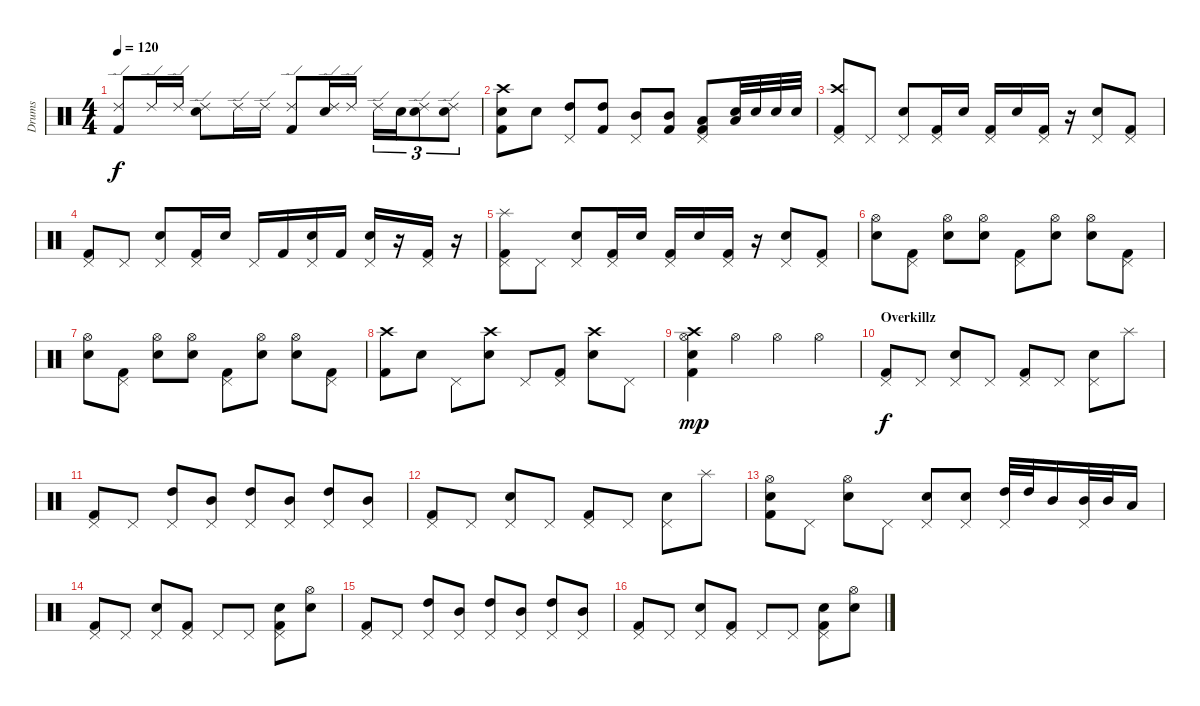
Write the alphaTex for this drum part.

\track ("Drums" "Drums") {instrument percussion}
\staff {score}
\articulation defaults
\ts (4 4)
\tempo 120
\clef neutral
\ks c
("Ride (edge) 2" "Kick (hit) 2").8{dy f} "Ride (edge) 2".16 "Ride (edge) 2".16 ("Ride (edge) 2" "Electric Snare (hit)").8 "Ride (edge) 2".16 "Ride (edge) 2".16 ("Ride (edge) 2" "Kick (hit) 2").8 ("Ride (edge) 2" "Electric Snare (hit)").16 "Ride (edge) 2".16 "Ride (edge) 2".16{tu (3 2)} "Electric Snare (hit)".16{tu (3 2)} ("Ride (edge) 2" "Electric Snare (hit)").8{tu (3 2)} ("Ride (edge) 2" "Electric Snare (hit)").8{tu (3 2)} |
("Crash high (hit)" "Electric Snare (hit)" "Kick (hit) 2").8 "Electric Snare (hit)".8 ("Pedal Hi-Hat (hit)" "High Tom (hit)").8 ("High Tom (hit)" "Kick (hit) 2").8 ("Pedal Hi-Hat (hit)" "Mid Tom (hit)").8 ("Mid Tom (hit)" "Kick (hit) 2").8 ("Pedal Hi-Hat (hit)" "Low Tom (hit)" "Kick (hit) 2").8 ("Electric Snare (hit)" "Low Tom (hit)").32 "Electric Snare (hit)".32 "Electric Snare (hit)".32 "Electric Snare (hit)".32 |
("Crash high (hit)" "Pedal Hi-Hat (hit)" "Kick (hit) 2").8 "Pedal Hi-Hat (hit)".8 ("Pedal Hi-Hat (hit)" "Electric Snare (hit)").8 ("Pedal Hi-Hat (hit)" "Kick (hit) 2").16 "Electric Snare (hit)".16 ("Pedal Hi-Hat (hit)" "Kick (hit) 2").16 "Electric Snare (hit)".16 ("Pedal Hi-Hat (hit)" "Kick (hit) 2").16 r.16 ("Pedal Hi-Hat (hit)" "Electric Snare (hit)").8 ("Pedal Hi-Hat (hit)" "Kick (hit) 2").8 |
("Pedal Hi-Hat (hit)" "Kick (hit) 2").8 "Pedal Hi-Hat (hit)".8 ("Pedal Hi-Hat (hit)" "Electric Snare (hit)").8 ("Pedal Hi-Hat (hit)" "Kick (hit) 2").16 "Electric Snare (hit)".16 "Pedal Hi-Hat (hit)".16 "Kick (hit) 2".16 ("Pedal Hi-Hat (hit)" "Electric Snare (hit)").16 "Kick (hit) 2".16 ("Pedal Hi-Hat (hit)" "Electric Snare (hit)").16 r.16 ("Pedal Hi-Hat (hit)" "Kick (hit) 2").16 r.16 |
("Splash (hit)" "Pedal Hi-Hat (hit)" "Kick (hit) 2").8 "Pedal Hi-Hat (hit)".8 ("Pedal Hi-Hat (hit)" "Electric Snare (hit)").8 ("Pedal Hi-Hat (hit)" "Kick (hit) 2").16 "Electric Snare (hit)".16 ("Pedal Hi-Hat (hit)" "Kick (hit) 2").16 "Electric Snare (hit)".16 ("Pedal Hi-Hat (hit)" "Kick (hit) 2").16 r.16 ("Pedal Hi-Hat (hit)" "Electric Snare (hit)").8 ("Pedal Hi-Hat (hit)" "Kick (hit) 2").8 |
("Hi-Hat (open)" "Electric Snare (hit)").8 ("Pedal Hi-Hat (hit)" "Kick (hit) 2").8 ("Hi-Hat (open)" "Electric Snare (hit)").8 ("Hi-Hat (open)" "Electric Snare (hit)").8 ("Pedal Hi-Hat (hit)" "Kick (hit) 2").8 ("Hi-Hat (open)" "Electric Snare (hit)").8 ("Hi-Hat (open)" "Electric Snare (hit)").8 ("Pedal Hi-Hat (hit)" "Kick (hit) 2").8 |
("Hi-Hat (open)" "Electric Snare (hit)").8 ("Pedal Hi-Hat (hit)" "Kick (hit) 2").8 ("Hi-Hat (open)" "Electric Snare (hit)").8 ("Hi-Hat (open)" "Electric Snare (hit)").8 ("Pedal Hi-Hat (hit)" "Kick (hit) 2").8 ("Hi-Hat (open)" "Electric Snare (hit)").8 ("Hi-Hat (open)" "Electric Snare (hit)").8 ("Pedal Hi-Hat (hit)" "Kick (hit) 2").8 |
("Crash high (hit)" "Kick (hit) 2").8 "Electric Snare (hit)".8 "Pedal Hi-Hat (hit)".8 ("Crash high (hit)" "Electric Snare (hit)").8 "Pedal Hi-Hat (hit)".8 ("Pedal Hi-Hat (hit)" "Kick (hit) 2").8 ("Crash high (hit)" "Electric Snare (hit)").8 "Pedal Hi-Hat (hit)".8 |
("Crash high (hit)" "Hi-Hat (open)" "Electric Snare (hit)" "Kick (hit) 2").4{dy mp} "Hi-Hat (open)".4 "Hi-Hat (open)".4 "Hi-Hat (open)".4 |
\section ("" "Overkillz")
("Pedal Hi-Hat (hit)" "Kick (hit) 2").8{dy f} "Pedal Hi-Hat (hit)".8 ("Pedal Hi-Hat (hit)" "Electric Snare (hit)").8 "Pedal Hi-Hat (hit)".8 ("Pedal Hi-Hat (hit)" "Kick (hit) 2").8 "Pedal Hi-Hat (hit)".8 ("Pedal Hi-Hat (hit)" "Electric Snare (hit)").8 "Splash (hit)".8 |
("Pedal Hi-Hat (hit)" "Kick (hit) 2").8 "Pedal Hi-Hat (hit)".8 ("Pedal Hi-Hat (hit)" "High Tom (hit)").8 ("Pedal Hi-Hat (hit)" "Mid Tom (hit)").8 ("Pedal Hi-Hat (hit)" "High Tom (hit)").8 ("Pedal Hi-Hat (hit)" "Mid Tom (hit)").8 ("Pedal Hi-Hat (hit)" "High Tom (hit)").8 ("Pedal Hi-Hat (hit)" "Mid Tom (hit)").8 |
("Pedal Hi-Hat (hit)" "Kick (hit) 2").8 "Pedal Hi-Hat (hit)".8 ("Pedal Hi-Hat (hit)" "Electric Snare (hit)").8 "Pedal Hi-Hat (hit)".8 ("Pedal Hi-Hat (hit)" "Kick (hit) 2").8 "Pedal Hi-Hat (hit)".8 ("Pedal Hi-Hat (hit)" "Electric Snare (hit)").8 "Splash (hit)".8 |
("Hi-Hat (open)" "Electric Snare (hit)" "Kick (hit) 2").8 "Pedal Hi-Hat (hit)".8 ("Hi-Hat (open)" "Electric Snare (hit)").8 "Pedal Hi-Hat (hit)".8 ("Pedal Hi-Hat (hit)" "Electric Snare (hit)").8 ("Pedal Hi-Hat (hit)" "Electric Snare (hit)").8 ("Pedal Hi-Hat (hit)" "High Tom (hit)").32 "High Tom (hit)".32 "Mid Tom (hit)".16 ("Pedal Hi-Hat (hit)" "Mid Tom (hit)").32 "Mid Tom (hit)".32 "Low Tom (hit)".16 |
("Pedal Hi-Hat (hit)" "Kick (hit) 2").8 "Pedal Hi-Hat (hit)".8 ("Pedal Hi-Hat (hit)" "Electric Snare (hit)").8 ("Pedal Hi-Hat (hit)" "Kick (hit) 2").8 "Pedal Hi-Hat (hit)".8 "Pedal Hi-Hat (hit)".8 ("Pedal Hi-Hat (hit)" "Electric Snare (hit)" "Kick (hit) 2").8 ("Hi-Hat (open)" "Electric Snare (hit)").8 |
("Pedal Hi-Hat (hit)" "Kick (hit) 2").8 "Pedal Hi-Hat (hit)".8 ("Pedal Hi-Hat (hit)" "High Tom (hit)").8 ("Pedal Hi-Hat (hit)" "Mid Tom (hit)").8 ("Pedal Hi-Hat (hit)" "High Tom (hit)").8 ("Pedal Hi-Hat (hit)" "Mid Tom (hit)").8 ("Pedal Hi-Hat (hit)" "High Tom (hit)").8 ("Pedal Hi-Hat (hit)" "Mid Tom (hit)").8 |
("Pedal Hi-Hat (hit)" "Kick (hit) 2").8 "Pedal Hi-Hat (hit)".8 ("Pedal Hi-Hat (hit)" "Electric Snare (hit)").8 ("Pedal Hi-Hat (hit)" "Kick (hit) 2").8 "Pedal Hi-Hat (hit)".8 "Pedal Hi-Hat (hit)".8 ("Pedal Hi-Hat (hit)" "Electric Snare (hit)" "Kick (hit) 2").8 ("Hi-Hat (open)" "Electric Snare (hit)").8
